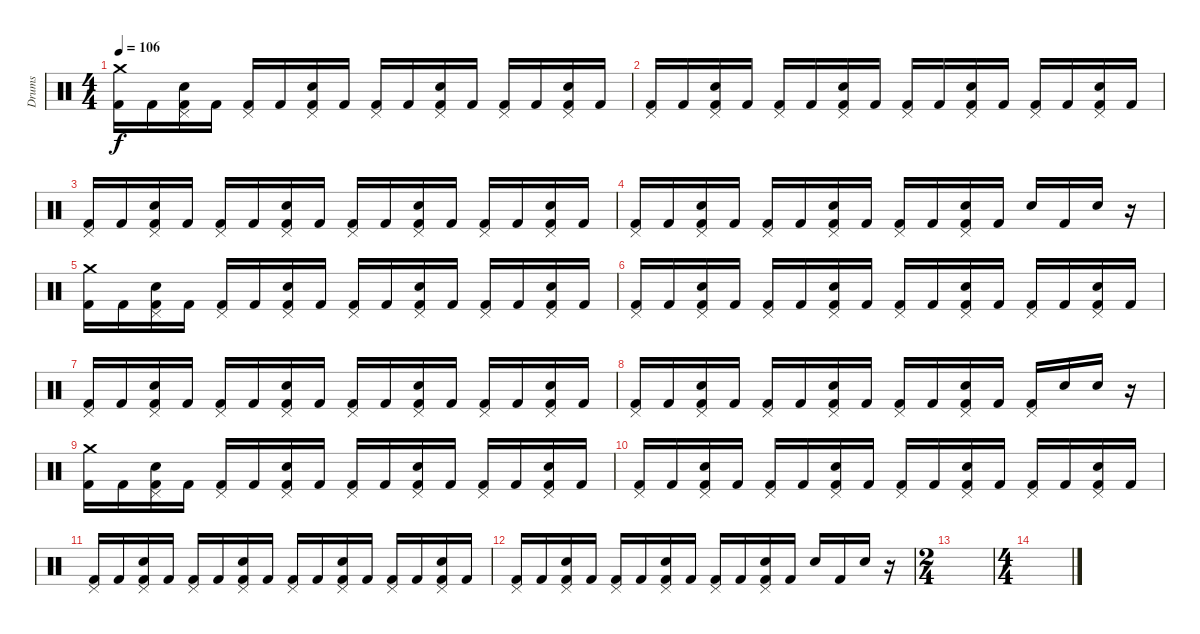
\track ("Drums" "Drums") {instrument percussion}
\staff {score}
\articulation defaults
\ts (4 4)
\tempo 106
\clef neutral
\ks c
("Kick (hit) 2" "Crash medium (hit)").16{dy f} "Kick (hit) 2".16 ("Kick (hit) 2" "Pedal Hi-Hat (hit)" "Electric Snare (hit)").16 "Kick (hit) 2".16 ("Kick (hit) 2" "Pedal Hi-Hat (hit)").16 "Kick (hit) 2".16 ("Kick (hit) 2" "Pedal Hi-Hat (hit)" "Electric Snare (hit)").16 "Kick (hit) 2".16 ("Kick (hit) 2" "Pedal Hi-Hat (hit)").16 "Kick (hit) 2".16 ("Kick (hit) 2" "Pedal Hi-Hat (hit)" "Electric Snare (hit)").16 "Kick (hit) 2".16 ("Kick (hit) 2" "Pedal Hi-Hat (hit)").16 "Kick (hit) 2".16 ("Kick (hit) 2" "Pedal Hi-Hat (hit)" "Electric Snare (hit)").16 "Kick (hit) 2".16 |
("Kick (hit) 2" "Pedal Hi-Hat (hit)").16 "Kick (hit) 2".16 ("Kick (hit) 2" "Pedal Hi-Hat (hit)" "Electric Snare (hit)").16 "Kick (hit) 2".16 ("Kick (hit) 2" "Pedal Hi-Hat (hit)").16 "Kick (hit) 2".16 ("Kick (hit) 2" "Pedal Hi-Hat (hit)" "Electric Snare (hit)").16 "Kick (hit) 2".16 ("Kick (hit) 2" "Pedal Hi-Hat (hit)").16 "Kick (hit) 2".16 ("Kick (hit) 2" "Pedal Hi-Hat (hit)" "Electric Snare (hit)").16 "Kick (hit) 2".16 ("Kick (hit) 2" "Pedal Hi-Hat (hit)").16 "Kick (hit) 2".16 ("Kick (hit) 2" "Pedal Hi-Hat (hit)" "Electric Snare (hit)").16 "Kick (hit) 2".16 |
("Kick (hit) 2" "Pedal Hi-Hat (hit)").16 "Kick (hit) 2".16 ("Kick (hit) 2" "Pedal Hi-Hat (hit)" "Electric Snare (hit)").16 "Kick (hit) 2".16 ("Kick (hit) 2" "Pedal Hi-Hat (hit)").16 "Kick (hit) 2".16 ("Kick (hit) 2" "Pedal Hi-Hat (hit)" "Electric Snare (hit)").16 "Kick (hit) 2".16 ("Kick (hit) 2" "Pedal Hi-Hat (hit)").16 "Kick (hit) 2".16 ("Kick (hit) 2" "Pedal Hi-Hat (hit)" "Electric Snare (hit)").16 "Kick (hit) 2".16 ("Kick (hit) 2" "Pedal Hi-Hat (hit)").16 "Kick (hit) 2".16 ("Kick (hit) 2" "Pedal Hi-Hat (hit)" "Electric Snare (hit)").16 "Kick (hit) 2".16 |
("Kick (hit) 2" "Pedal Hi-Hat (hit)").16 "Kick (hit) 2".16 ("Kick (hit) 2" "Pedal Hi-Hat (hit)" "Electric Snare (hit)").16 "Kick (hit) 2".16 ("Kick (hit) 2" "Pedal Hi-Hat (hit)").16 "Kick (hit) 2".16 ("Kick (hit) 2" "Pedal Hi-Hat (hit)" "Electric Snare (hit)").16 "Kick (hit) 2".16 ("Kick (hit) 2" "Pedal Hi-Hat (hit)").16 "Kick (hit) 2".16 ("Kick (hit) 2" "Pedal Hi-Hat (hit)" "Electric Snare (hit)").16 "Kick (hit) 2".16 "Electric Snare (hit)".16 "Kick (hit) 2".16 "Electric Snare (hit)".16 r.16 |
("Kick (hit) 2" "Crash medium (hit)").16 "Kick (hit) 2".16 ("Kick (hit) 2" "Pedal Hi-Hat (hit)" "Electric Snare (hit)").16 "Kick (hit) 2".16 ("Kick (hit) 2" "Pedal Hi-Hat (hit)").16 "Kick (hit) 2".16 ("Kick (hit) 2" "Pedal Hi-Hat (hit)" "Electric Snare (hit)").16 "Kick (hit) 2".16 ("Kick (hit) 2" "Pedal Hi-Hat (hit)").16 "Kick (hit) 2".16 ("Kick (hit) 2" "Pedal Hi-Hat (hit)" "Electric Snare (hit)").16 "Kick (hit) 2".16 ("Kick (hit) 2" "Pedal Hi-Hat (hit)").16 "Kick (hit) 2".16 ("Kick (hit) 2" "Pedal Hi-Hat (hit)" "Electric Snare (hit)").16 "Kick (hit) 2".16 |
("Kick (hit) 2" "Pedal Hi-Hat (hit)").16 "Kick (hit) 2".16 ("Kick (hit) 2" "Pedal Hi-Hat (hit)" "Electric Snare (hit)").16 "Kick (hit) 2".16 ("Kick (hit) 2" "Pedal Hi-Hat (hit)").16 "Kick (hit) 2".16 ("Kick (hit) 2" "Pedal Hi-Hat (hit)" "Electric Snare (hit)").16 "Kick (hit) 2".16 ("Kick (hit) 2" "Pedal Hi-Hat (hit)").16 "Kick (hit) 2".16 ("Kick (hit) 2" "Pedal Hi-Hat (hit)" "Electric Snare (hit)").16 "Kick (hit) 2".16 ("Kick (hit) 2" "Pedal Hi-Hat (hit)").16 "Kick (hit) 2".16 ("Kick (hit) 2" "Pedal Hi-Hat (hit)" "Electric Snare (hit)").16 "Kick (hit) 2".16 |
("Kick (hit) 2" "Pedal Hi-Hat (hit)").16 "Kick (hit) 2".16 ("Kick (hit) 2" "Pedal Hi-Hat (hit)" "Electric Snare (hit)").16 "Kick (hit) 2".16 ("Kick (hit) 2" "Pedal Hi-Hat (hit)").16 "Kick (hit) 2".16 ("Kick (hit) 2" "Pedal Hi-Hat (hit)" "Electric Snare (hit)").16 "Kick (hit) 2".16 ("Kick (hit) 2" "Pedal Hi-Hat (hit)").16 "Kick (hit) 2".16 ("Kick (hit) 2" "Pedal Hi-Hat (hit)" "Electric Snare (hit)").16 "Kick (hit) 2".16 ("Kick (hit) 2" "Pedal Hi-Hat (hit)").16 "Kick (hit) 2".16 ("Kick (hit) 2" "Pedal Hi-Hat (hit)" "Electric Snare (hit)").16 "Kick (hit) 2".16 |
("Kick (hit) 2" "Pedal Hi-Hat (hit)").16 "Kick (hit) 2".16 ("Kick (hit) 2" "Pedal Hi-Hat (hit)" "Electric Snare (hit)").16 "Kick (hit) 2".16 ("Kick (hit) 2" "Pedal Hi-Hat (hit)").16 "Kick (hit) 2".16 ("Kick (hit) 2" "Pedal Hi-Hat (hit)" "Electric Snare (hit)").16 "Kick (hit) 2".16 ("Kick (hit) 2" "Pedal Hi-Hat (hit)").16 "Kick (hit) 2".16 ("Kick (hit) 2" "Pedal Hi-Hat (hit)" "Electric Snare (hit)").16 "Kick (hit) 2".16 ("Kick (hit) 2" "Pedal Hi-Hat (hit)").16 "Electric Snare (hit)".16 "Electric Snare (hit)".16 r.16 |
("Kick (hit) 2" "Crash medium (hit)").16 "Kick (hit) 2".16 ("Kick (hit) 2" "Pedal Hi-Hat (hit)" "Electric Snare (hit)").16 "Kick (hit) 2".16 ("Kick (hit) 2" "Pedal Hi-Hat (hit)").16 "Kick (hit) 2".16 ("Kick (hit) 2" "Pedal Hi-Hat (hit)" "Electric Snare (hit)").16 "Kick (hit) 2".16 ("Kick (hit) 2" "Pedal Hi-Hat (hit)").16 "Kick (hit) 2".16 ("Kick (hit) 2" "Pedal Hi-Hat (hit)" "Electric Snare (hit)").16 "Kick (hit) 2".16 ("Kick (hit) 2" "Pedal Hi-Hat (hit)").16 "Kick (hit) 2".16 ("Kick (hit) 2" "Pedal Hi-Hat (hit)" "Electric Snare (hit)").16 "Kick (hit) 2".16 |
("Kick (hit) 2" "Pedal Hi-Hat (hit)").16 "Kick (hit) 2".16 ("Kick (hit) 2" "Pedal Hi-Hat (hit)" "Electric Snare (hit)").16 "Kick (hit) 2".16 ("Kick (hit) 2" "Pedal Hi-Hat (hit)").16 "Kick (hit) 2".16 ("Kick (hit) 2" "Pedal Hi-Hat (hit)" "Electric Snare (hit)").16 "Kick (hit) 2".16 ("Kick (hit) 2" "Pedal Hi-Hat (hit)").16 "Kick (hit) 2".16 ("Kick (hit) 2" "Pedal Hi-Hat (hit)" "Electric Snare (hit)").16 "Kick (hit) 2".16 ("Kick (hit) 2" "Pedal Hi-Hat (hit)").16 "Kick (hit) 2".16 ("Kick (hit) 2" "Pedal Hi-Hat (hit)" "Electric Snare (hit)").16 "Kick (hit) 2".16 |
("Kick (hit) 2" "Pedal Hi-Hat (hit)").16 "Kick (hit) 2".16 ("Kick (hit) 2" "Pedal Hi-Hat (hit)" "Electric Snare (hit)").16 "Kick (hit) 2".16 ("Kick (hit) 2" "Pedal Hi-Hat (hit)").16 "Kick (hit) 2".16 ("Kick (hit) 2" "Pedal Hi-Hat (hit)" "Electric Snare (hit)").16 "Kick (hit) 2".16 ("Kick (hit) 2" "Pedal Hi-Hat (hit)").16 "Kick (hit) 2".16 ("Kick (hit) 2" "Pedal Hi-Hat (hit)" "Electric Snare (hit)").16 "Kick (hit) 2".16 ("Kick (hit) 2" "Pedal Hi-Hat (hit)").16 "Kick (hit) 2".16 ("Kick (hit) 2" "Pedal Hi-Hat (hit)" "Electric Snare (hit)").16 "Kick (hit) 2".16 |
("Kick (hit) 2" "Pedal Hi-Hat (hit)").16 "Kick (hit) 2".16 ("Kick (hit) 2" "Pedal Hi-Hat (hit)" "Electric Snare (hit)").16 "Kick (hit) 2".16 ("Kick (hit) 2" "Pedal Hi-Hat (hit)").16 "Kick (hit) 2".16 ("Kick (hit) 2" "Pedal Hi-Hat (hit)" "Electric Snare (hit)").16 "Kick (hit) 2".16 ("Kick (hit) 2" "Pedal Hi-Hat (hit)").16 "Kick (hit) 2".16 ("Kick (hit) 2" "Pedal Hi-Hat (hit)" "Electric Snare (hit)").16 "Kick (hit) 2".16 "Electric Snare (hit)".16 "Kick (hit) 2".16 "Electric Snare (hit)".16 r.16 |
\ts (2 4)
|
\ts (4 4)
